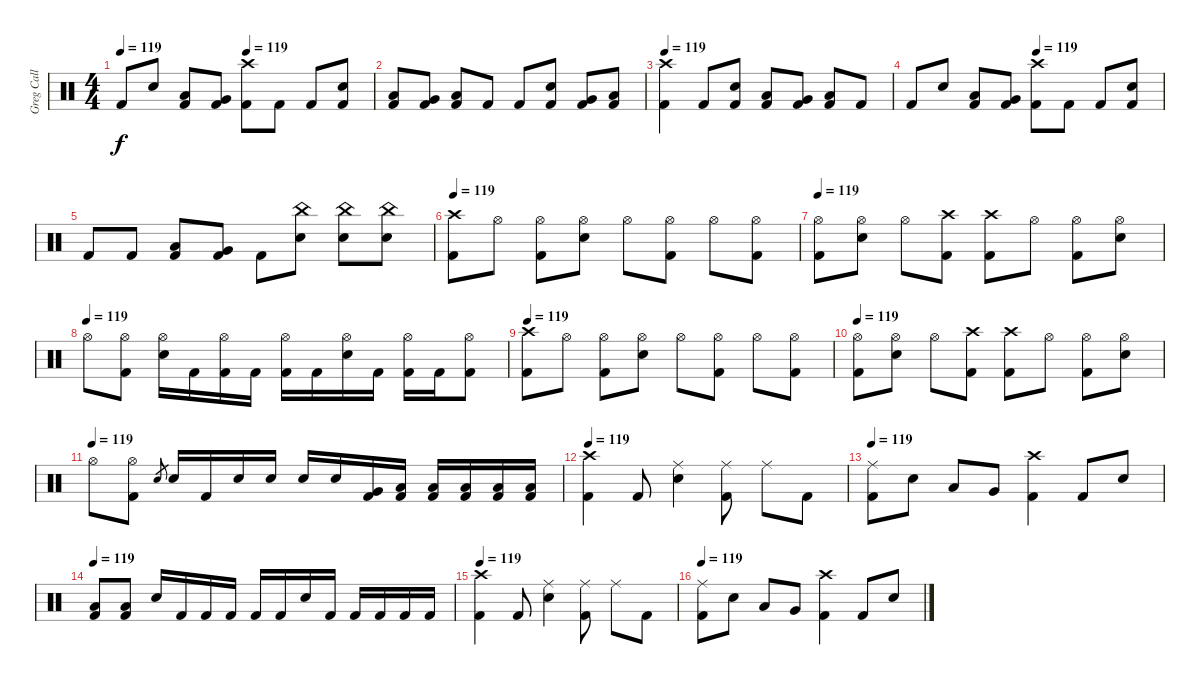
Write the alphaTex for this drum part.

\track ("Greg Call (Drums)" "Greg Call ") {instrument percussion}
\staff {score}
\articulation defaults
\ts (4 4)
\tempo 119
\tempo (119 0.5)
\clef neutral
\ks c "Kick (hit) 2".8{dy f} "Snare (hit) 2".8
("Low Tom (hit)" "Kick (hit) 2").8 ("Very Low Tom (hit)" "Kick (hit) 2").8 ("Crash high (hit)" "Kick (hit) 2").8 "Kick (hit) 2".8 "Kick (hit) 2".8 ("Kick (hit) 2" "Snare (hit) 2").8 |
("Kick (hit) 2" "Low Tom (hit)").8 ("Kick (hit) 2" "Very Low Tom (hit)").8 ("Kick (hit) 2" "Low Floor Tom (hit)").8 "Kick (hit) 2".8 "Kick (hit) 2".8 ("Kick (hit) 2" "Snare (hit) 2").8 ("Kick (hit) 2" "Very Low Tom (hit)").8 ("Kick (hit) 2" "Low Floor Tom (hit)").8 |
\tempo 119
("Crash high (hit)" "Kick (hit) 2").4{volume 16} "Kick (hit) 2".8 ("Snare (hit) 2" "Kick (hit) 2").8 ("Low Tom (hit)" "Kick (hit) 2").8 ("Very Low Tom (hit)" "Kick (hit) 2").8 ("Low Floor Tom (hit)" "Kick (hit) 2").8 "Kick (hit) 2".8 |
\tempo (119 0.5)
"Kick (hit) 2".8 "Snare (hit) 2".8 ("Low Tom (hit)" "Kick (hit) 2").8 ("Very Low Tom (hit)" "Kick (hit) 2").8 ("Crash high (hit)" "Kick (hit) 2").8 "Kick (hit) 2".8 "Kick (hit) 2".8 ("Kick (hit) 2" "Snare (hit) 2").8 |
"Kick (hit) 2".8 "Kick (hit) 2".8 ("Low Tom (hit)" "Kick (hit) 2").8 ("Very Low Tom (hit)" "Kick (hit) 2").8 "Kick (hit) 2".8 ("China (hit)" "Snare (hit) 2").8 ("China (hit)" "Snare (hit) 2").8 ("China (hit)" "Snare (hit) 2").8 |
\tempo 119
("Crash high (hit)" "Kick (hit) 2").8 "Hi-Hat (open)".8 ("Hi-Hat (open)" "Kick (hit) 2").8 ("Hi-Hat (open)" "Snare (hit) 2").8 "Hi-Hat (open)".8 ("Hi-Hat (open)" "Kick (hit) 2").8 "Hi-Hat (open)".8 ("Hi-Hat (open)" "Kick (hit) 2").8 |
\tempo 119
("Hi-Hat (open)" "Kick (hit) 2").8 ("Hi-Hat (open)" "Snare (hit) 2").8 "Hi-Hat (open)".8 ("Crash high (hit)" "Kick (hit) 2").8 ("Crash high (hit)" "Kick (hit) 2").8 "Hi-Hat (open)".8 ("Hi-Hat (open)" "Kick (hit) 2").8 ("Hi-Hat (open)" "Snare (hit) 2").8 |
\tempo (119)
"Hi-Hat (open)".8 ("Hi-Hat (open)" "Kick (hit) 2").8 ("Hi-Hat (open)" "Snare (hit) 2").16 "Kick (hit) 2".16 ("Hi-Hat (open)" "Kick (hit) 2").16 "Kick (hit) 2".16 ("Hi-Hat (open)" "Kick (hit) 2").16 "Kick (hit) 2".16 ("Hi-Hat (open)" "Snare (hit) 2").16 "Kick (hit) 2".16 ("Hi-Hat (open)" "Kick (hit) 2").16 "Kick (hit) 2".16 ("Hi-Hat (open)" "Kick (hit) 2").8 |
\tempo 119
("Crash high (hit)" "Kick (hit) 2").8 "Hi-Hat (open)".8 ("Hi-Hat (open)" "Kick (hit) 2").8 ("Hi-Hat (open)" "Snare (hit) 2").8 "Hi-Hat (open)".8 ("Hi-Hat (open)" "Kick (hit) 2").8 "Hi-Hat (open)".8 ("Hi-Hat (open)" "Kick (hit) 2").8 |
\tempo 119
("Hi-Hat (open)" "Kick (hit) 2").8 ("Hi-Hat (open)" "Snare (hit) 2").8 "Hi-Hat (open)".8 ("Crash high (hit)" "Kick (hit) 2").8 ("Crash high (hit)" "Kick (hit) 2").8 "Hi-Hat (open)".8 ("Hi-Hat (open)" "Kick (hit) 2").8 ("Hi-Hat (open)" "Snare (hit) 2").8 |
\tempo (119)
"Hi-Hat (open)".8 ("Hi-Hat (open)" "Kick (hit) 2").8 "Snare (hit) 2".8{gr} "Snare (hit) 2".16 "Kick (hit) 2".16 "Snare (hit) 2".16 "Snare (hit) 2".16 "Snare (hit) 2".16 "Snare (hit) 2".16 ("Very Low Tom (hit)" "Kick (hit) 2").16 ("Low Floor Tom (hit)" "Kick (hit) 2").16 ("Low Floor Tom (hit)" "Kick (hit) 2").16 ("Low Floor Tom (hit)" "Kick (hit) 2").16 ("Low Floor Tom (hit)" "Kick (hit) 2").16 ("Low Floor Tom (hit)" "Kick (hit) 2").16 |
\tempo 119
("Crash high (hit)" "Kick (hit) 2").4 "Kick (hit) 2".8 ("Ride (middle)" "Snare (hit) 2").4 ("Ride (middle)" "Kick (hit) 2").8 "Ride (middle)".8 "Kick (hit) 2".8 |
\tempo 119
("Ride (middle)" "Kick (hit) 2").8 "Snare (hit) 2".8 "Low Tom (hit)".8 "Very Low Tom (hit)".8 ("Crash high (hit)" "Kick (hit) 2").4 "Kick (hit) 2".8 "Snare (hit) 2".8 |
\tempo 119
("Kick (hit) 2" "Low Tom (hit)").8 ("Kick (hit) 2" "Low Floor Tom (hit)").8 "Snare (hit) 2".16 "Kick (hit) 2".16 "Kick (hit) 2".16 "Kick (hit) 2".16 "Kick (hit) 2".16 "Kick (hit) 2".16 "Snare (hit) 2".16 "Kick (hit) 2".16 "Kick (hit) 2".16 "Kick (hit) 2".16 "Kick (hit) 2".16 "Kick (hit) 2".16 |
\tempo 119
("Crash high (hit)" "Kick (hit) 2").4 "Kick (hit) 2".8 ("Ride (middle)" "Snare (hit) 2").4 ("Ride (middle)" "Kick (hit) 2").8 "Ride (middle)".8 "Kick (hit) 2".8 |
\tempo 119
("Ride (middle)" "Kick (hit) 2").8 "Snare (hit) 2".8 "Low Tom (hit)".8 "Very Low Tom (hit)".8 ("Crash high (hit)" "Kick (hit) 2").4 "Kick (hit) 2".8 "Snare (hit) 2".8
